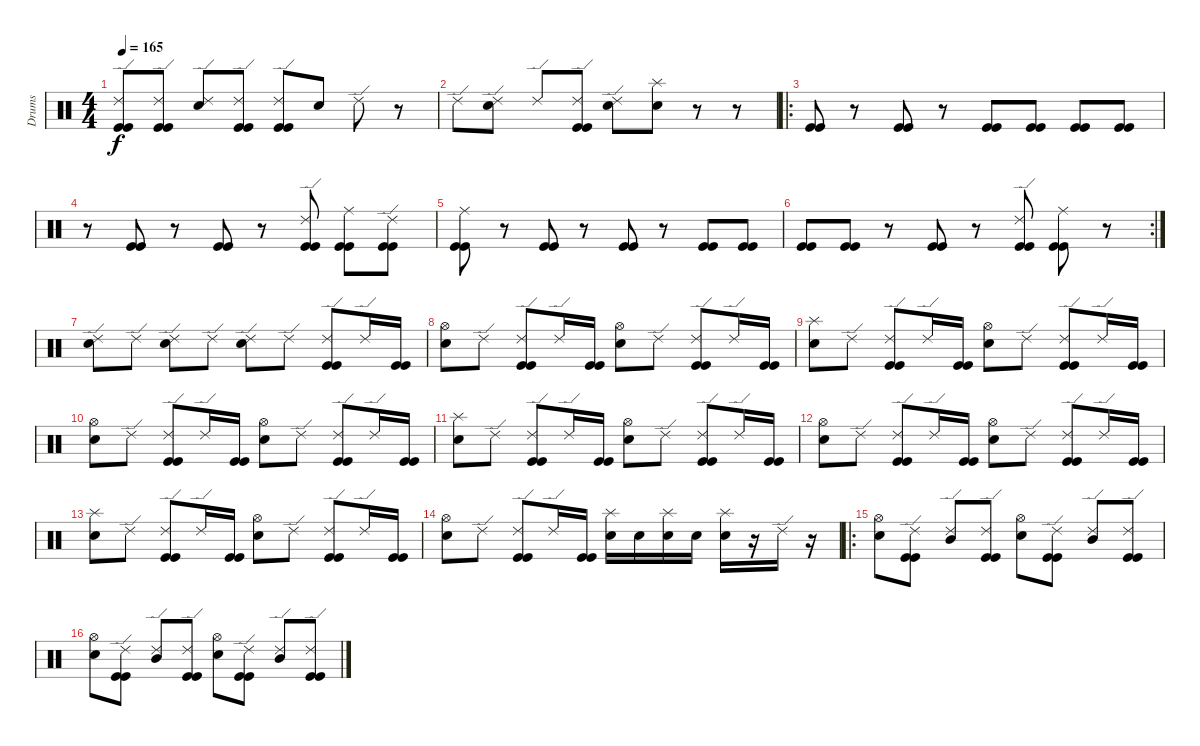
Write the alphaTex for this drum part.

\track ("Drums" "Drums") {instrument percussion}
\staff {score}
\articulation defaults
\ts (4 4)
\tempo 165
\clef neutral
\ks c
("Ride (edge) 2" "Kick (hit)" "Kick (hit)").8{dy f} ("Ride (edge) 2" "Kick (hit)" "Kick (hit)").8 ("Ride (edge) 2" "Snare (hit) 2").8 ("Ride (edge) 2" "Kick (hit)" "Kick (hit)").8 ("Ride (edge) 2" "Kick (hit)" "Kick (hit)").8 "Snare (hit) 2".8 "Ride (edge) 2".8 r.8 |
"Ride (edge) 2".8 ("Ride (edge) 2" "Snare (hit) 2").8 "Ride (edge) 2".8 ("Ride (edge) 2" "Kick (hit)" "Kick (hit)").8 ("Ride (edge) 2" "Snare (hit) 2").8 ("Splash (hit)" "Snare (hit) 2").8 r.8 r.8 |
\ro
("Kick (hit)" "Kick (hit)").8 r.8 ("Kick (hit)" "Kick (hit)").8 r.8 ("Kick (hit)" "Kick (hit)").8 ("Kick (hit)" "Kick (hit)").8 ("Kick (hit)" "Kick (hit)").8 ("Kick (hit)" "Kick (hit)").8 |
r.8 ("Kick (hit)" "Kick (hit)").8 r.8 ("Kick (hit)" "Kick (hit)").8 r.8 ("Ride (edge) 2" "Kick (hit)" "Kick (hit)").8 ("Ride (middle)" "Kick (hit)" "Kick (hit)").8 ("Ride (edge) 2" "Kick (hit)" "Kick (hit)").8 |
("Ride (middle)" "Kick (hit)" "Kick (hit)").8 r.8 ("Kick (hit)" "Kick (hit)").8 r.8 ("Kick (hit)" "Kick (hit)").8 r.8 ("Kick (hit)" "Kick (hit)").8 ("Kick (hit)" "Kick (hit)").8 |
\rc 2
("Kick (hit)" "Kick (hit)").8 ("Kick (hit)" "Kick (hit)").8 r.8 ("Kick (hit)" "Kick (hit)").8 r.8 ("Ride (edge) 2" "Kick (hit)" "Kick (hit)").8 ("Ride (middle)" "Kick (hit)" "Kick (hit)").8 r.8 |
("Ride (edge) 2" "Snare (hit) 2").8 "Ride (edge) 2".8 ("Ride (edge) 2" "Snare (hit) 2").8 "Ride (edge) 2".8 ("Ride (edge) 2" "Snare (hit) 2").8 "Ride (edge) 2".8 ("Ride (edge) 2" "Kick (hit)" "Kick (hit)").8 "Ride (edge) 2".16 ("Kick (hit)" "Kick (hit)").16 |
("Hi-Hat (open)" "Snare (hit) 2").8 "Ride (edge) 2".8 ("Ride (edge) 2" "Kick (hit)" "Kick (hit)").8 "Ride (edge) 2".16 ("Kick (hit)" "Kick (hit)").16 ("Hi-Hat (open)" "Snare (hit) 2").8 "Ride (edge) 2".8 ("Ride (edge) 2" "Kick (hit)" "Kick (hit)").8 "Ride (edge) 2".16 ("Kick (hit)" "Kick (hit)").16 |
("Splash (hit)" "Snare (hit) 2").8 "Ride (edge) 2".8 ("Ride (edge) 2" "Kick (hit)" "Kick (hit)").8 "Ride (edge) 2".16 ("Kick (hit)" "Kick (hit)").16 ("Hi-Hat (open)" "Snare (hit) 2").8 "Ride (edge) 2".8 ("Ride (edge) 2" "Kick (hit)" "Kick (hit)").8 "Ride (edge) 2".16 ("Kick (hit)" "Kick (hit)").16 |
("Hi-Hat (open)" "Snare (hit) 2").8 "Ride (edge) 2".8 ("Ride (edge) 2" "Kick (hit)" "Kick (hit)").8 "Ride (edge) 2".16 ("Kick (hit)" "Kick (hit)").16 ("Hi-Hat (open)" "Snare (hit) 2").8 "Ride (edge) 2".8 ("Ride (edge) 2" "Kick (hit)" "Kick (hit)").8 "Ride (edge) 2".16 ("Kick (hit)" "Kick (hit)").16 |
("Splash (hit)" "Snare (hit) 2").8 "Ride (edge) 2".8 ("Ride (edge) 2" "Kick (hit)" "Kick (hit)").8 "Ride (edge) 2".16 ("Kick (hit)" "Kick (hit)").16 ("Hi-Hat (open)" "Snare (hit) 2").8 "Ride (edge) 2".8 ("Ride (edge) 2" "Kick (hit)" "Kick (hit)").8 "Ride (edge) 2".16 ("Kick (hit)" "Kick (hit)").16 |
("Hi-Hat (open)" "Snare (hit) 2").8 "Ride (edge) 2".8 ("Ride (edge) 2" "Kick (hit)" "Kick (hit)").8 "Ride (edge) 2".16 ("Kick (hit)" "Kick (hit)").16 ("Hi-Hat (open)" "Snare (hit) 2").8 "Ride (edge) 2".8 ("Ride (edge) 2" "Kick (hit)" "Kick (hit)").8 "Ride (edge) 2".16 ("Kick (hit)" "Kick (hit)").16 |
("Splash (hit)" "Snare (hit) 2").8 "Ride (edge) 2".8 ("Ride (edge) 2" "Kick (hit)" "Kick (hit)").8 "Ride (edge) 2".16 ("Kick (hit)" "Kick (hit)").16 ("Hi-Hat (open)" "Snare (hit) 2").8 "Ride (edge) 2".8 ("Ride (edge) 2" "Kick (hit)" "Kick (hit)").8 "Ride (edge) 2".16 ("Kick (hit)" "Kick (hit)").16 |
("Hi-Hat (open)" "Snare (hit) 2").8 "Ride (edge) 2".8 ("Ride (edge) 2" "Kick (hit)" "Kick (hit)").8 "Ride (edge) 2".16 ("Kick (hit)" "Kick (hit)").16 ("Splash (hit)" "Snare (hit) 2").16 "Snare (hit) 2".16 ("Splash (hit)" "Snare (hit) 2").16 "Snare (hit) 2".16 ("Splash (hit)" "Snare (hit) 2").16 r.16 "Ride (edge) 2".16 r.16 |
\ro
("Hi-Hat (open)" "Snare (hit) 2").8 ("Ride (edge) 2" "Kick (hit)" "Kick (hit)").8 ("Ride (edge) 2" "Mid Tom (hit)").8 ("Ride (edge) 2" "Kick (hit)" "Kick (hit)").8 ("Hi-Hat (open)" "Snare (hit) 2").8 ("Ride (edge) 2" "Kick (hit)" "Kick (hit)").8 ("Ride (edge) 2" "Mid Tom (hit)").8 ("Ride (edge) 2" "Kick (hit)" "Kick (hit)").8 |
("Hi-Hat (open)" "Snare (hit) 2").8 ("Ride (edge) 2" "Kick (hit)" "Kick (hit)").8 ("Ride (edge) 2" "Mid Tom (hit)").8 ("Ride (edge) 2" "Kick (hit)" "Kick (hit)").8 ("Hi-Hat (open)" "Snare (hit) 2").8 ("Ride (edge) 2" "Kick (hit)" "Kick (hit)").8 ("Ride (edge) 2" "Mid Tom (hit)").8 ("Ride (edge) 2" "Kick (hit)" "Kick (hit)").8
